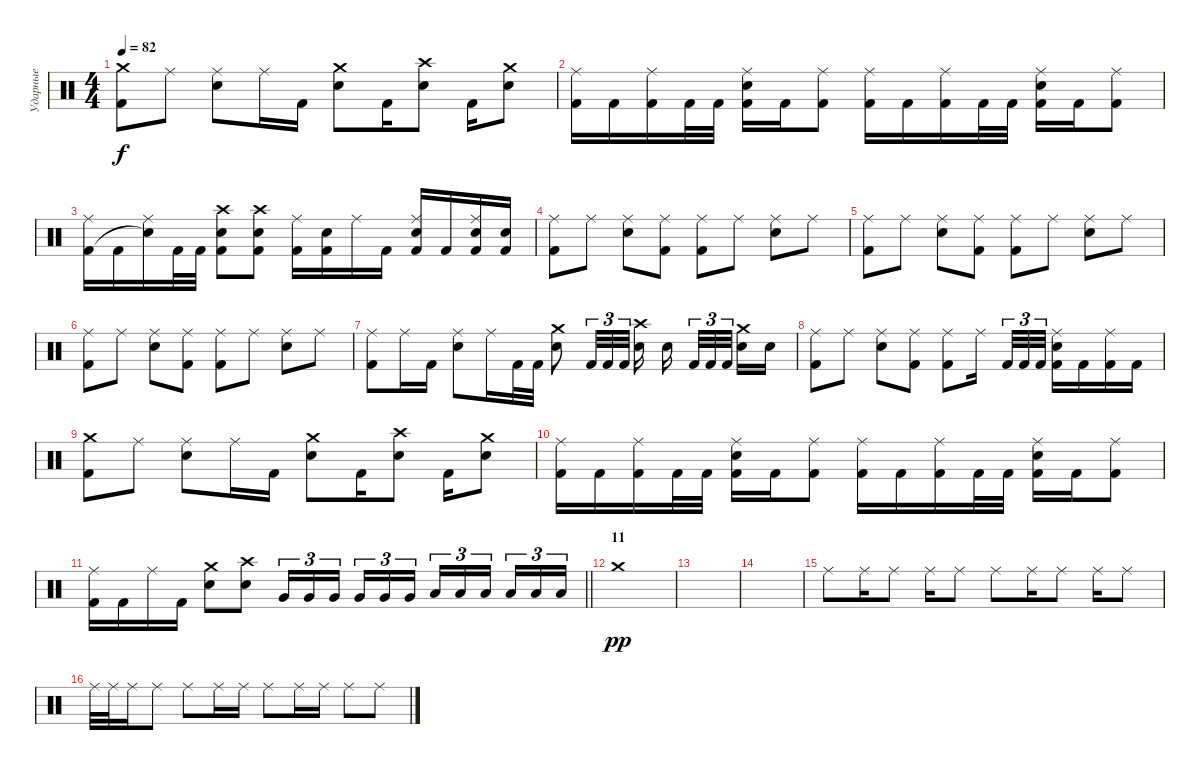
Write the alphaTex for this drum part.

\track ("Ударные" "Ударные") {mute instrument percussion}
\staff {score}
\articulation defaults
\ts (4 4)
\tempo 82
\clef neutral
\ks c
("Crash medium (hit)" "Kick (hit) 2").8{dy f} "Ride (middle)".8 ("Ride (middle)" "Electric Snare (hit)").8 "Ride (middle)".16 "Kick (hit) 2".16 ("Crash medium (hit)" "Electric Snare (hit)").8 "Kick (hit) 2".16 ("Crash high (hit)" "Electric Snare (hit)").8 "Kick (hit) 2".16 ("Crash medium (hit)" "Electric Snare (hit)").8 |
("Ride (middle)" "Kick (hit) 2").16 "Kick (hit) 2".16 ("Ride (middle)" "Kick (hit) 2").16 "Kick (hit) 2".32 "Kick (hit) 2".32 ("Ride (middle)" "Electric Snare (hit)" "Kick (hit) 2").16 "Kick (hit) 2".16 ("Ride (middle)" "Kick (hit) 2").8 ("Ride (middle)" "Kick (hit) 2").16 "Kick (hit) 2".16 ("Ride (middle)" "Kick (hit) 2").16 "Kick (hit) 2".32 "Kick (hit) 2".32 ("Ride (middle)" "Electric Snare (hit)" "Kick (hit) 2").16 "Kick (hit) 2".16 ("Ride (middle)" "Kick (hit) 2").8 |
("Ride (middle)" "Kick (hit) 2").16 "Kick (hit) 2".16 ("Ride (middle)" "Snare (hit)"{t}).16 "Kick (hit) 2".32 "Kick (hit) 2".32 ("Crash high (hit)" "Electric Snare (hit)" "Kick (hit) 2").8 ("Crash high (hit)" "Electric Snare (hit)" "Kick (hit) 2").8 ("Ride (middle)" "Kick (hit) 2").16 ("Electric Snare (hit)" "Kick (hit) 2").16 "Ride (middle)".16 "Kick (hit) 2".16 ("Ride (middle)" "Electric Snare (hit)" "Kick (hit) 2").16 "Kick (hit) 2".16 ("Ride (middle)" "Electric Snare (hit)" "Kick (hit) 2").16 ("Electric Snare (hit)" "Kick (hit) 2").16 |
("Ride (middle)" "Kick (hit) 2").8 "Ride (middle)".8 ("Ride (middle)" "Electric Snare (hit)").8 ("Ride (middle)" "Kick (hit) 2").8 ("Ride (middle)" "Kick (hit) 2").8 "Ride (middle)".8 ("Ride (middle)" "Electric Snare (hit)").8 "Ride (middle)".8 |
("Ride (middle)" "Kick (hit) 2").8 "Ride (middle)".8 ("Ride (middle)" "Electric Snare (hit)").8 ("Ride (middle)" "Kick (hit) 2").8 ("Ride (middle)" "Kick (hit) 2").8 "Ride (middle)".8 ("Ride (middle)" "Electric Snare (hit)").8 "Ride (middle)".8 |
("Ride (middle)" "Kick (hit) 2").8 "Ride (middle)".8 ("Ride (middle)" "Electric Snare (hit)").8 ("Ride (middle)" "Kick (hit) 2").8 ("Ride (middle)" "Kick (hit) 2").8 "Ride (middle)".8 ("Ride (middle)" "Electric Snare (hit)").8 "Ride (middle)".8 |
("Ride (middle)" "Kick (hit) 2").8 "Ride (middle)".16 "Kick (hit) 2".16 ("Ride (middle)" "Electric Snare (hit)").8 "Ride (middle)".16 "Kick (hit) 2".32 "Kick (hit) 2".32 ("Crash medium (hit)" "Electric Snare (hit)").8 "Kick (hit) 2".32{tu (3 2)} "Kick (hit) 2".32{tu (3 2)} "Kick (hit) 2".32{tu (3 2) beam splitsecondary} ("Crash high (hit)" "Electric Snare (hit)").16 "Electric Snare (hit)".16{beam splitsecondary} "Kick (hit) 2".32{tu (3 2)} "Kick (hit) 2".32{tu (3 2)} "Kick (hit) 2".32{tu (3 2) beam splitsecondary} ("Crash medium (hit)" "Electric Snare (hit)").16 "Electric Snare (hit)".16 |
("Ride (middle)" "Kick (hit) 2").8 "Ride (middle)".8 ("Ride (middle)" "Electric Snare (hit)").8 ("Ride (middle)" "Kick (hit) 2").8 ("Ride (middle)" "Kick (hit) 2").8 "Ride (middle)".16{beam splitsecondary} "Kick (hit) 2".32{tu (3 2)} "Kick (hit) 2".32{tu (3 2)} "Kick (hit) 2".32{tu (3 2)} ("Ride (middle)" "Electric Snare (hit)" "Kick (hit) 2").16 "Kick (hit) 2".16 ("Ride (middle)" "Kick (hit) 2").16 "Kick (hit) 2".16 |
("Crash medium (hit)" "Kick (hit) 2").8 "Ride (middle)".8 ("Ride (middle)" "Electric Snare (hit)").8 "Ride (middle)".16 "Kick (hit) 2".16 ("Crash medium (hit)" "Electric Snare (hit)").8 "Kick (hit) 2".16 ("Crash high (hit)" "Electric Snare (hit)").8 "Kick (hit) 2".16 ("Crash medium (hit)" "Electric Snare (hit)").8 |
("Ride (middle)" "Kick (hit) 2").16 "Kick (hit) 2".16 ("Ride (middle)" "Kick (hit) 2").16 "Kick (hit) 2".32 "Kick (hit) 2".32 ("Ride (middle)" "Electric Snare (hit)" "Kick (hit) 2").16 "Kick (hit) 2".16 ("Ride (middle)" "Kick (hit) 2").8 ("Ride (middle)" "Kick (hit) 2").16 "Kick (hit) 2".16 ("Ride (middle)" "Kick (hit) 2").16 "Kick (hit) 2".32 "Kick (hit) 2".32 ("Ride (middle)" "Electric Snare (hit)" "Kick (hit) 2").16 "Kick (hit) 2".16 ("Ride (middle)" "Kick (hit) 2").8 |
\barLineRight lightlight
("Ride (middle)" "Kick (hit) 2").16 "Kick (hit) 2".16 "Ride (middle)".16 "Kick (hit) 2".16 ("Crash medium (hit)" "Electric Snare (hit)").8 ("Crash high (hit)" "Electric Snare (hit)").8 "Very Low Tom (hit)".16{tu (3 2)} "Very Low Tom (hit)".16{tu (3 2)} "Very Low Tom (hit)".16{tu (3 2) beam splitsecondary} "Very Low Tom (hit)".16{tu (3 2)} "Very Low Tom (hit)".16{tu (3 2)} "Very Low Tom (hit)".16{tu (3 2)} "Low Floor Tom (hit)".16{tu (3 2)} "Low Floor Tom (hit)".16{tu (3 2)} "Low Floor Tom (hit)".16{tu (3 2) beam splitsecondary} "Low Floor Tom (hit)".16{tu (3 2)} "Low Floor Tom (hit)".16{tu (3 2)} "Low Floor Tom (hit)".16{tu (3 2)} |
\section ("" "11")
"Crash medium (hit)".1{dy pp} |
|
|
"Ride (middle)".8 "Ride (middle)".16 "Ride (middle)".8 "Ride (middle)".16 "Ride (middle)".8 "Ride (middle)".8 "Ride (middle)".16 "Ride (middle)".8 "Ride (middle)".16 "Ride (middle)".8 |
"Ride (middle)".32 "Ride (middle)".32 "Ride (middle)".16 "Ride (middle)".8 "Ride (middle)".8 "Ride (middle)".16 "Ride (middle)".16 "Ride (middle)".8 "Ride (middle)".16 "Ride (middle)".16 "Ride (middle)".8 "Ride (middle)".8
